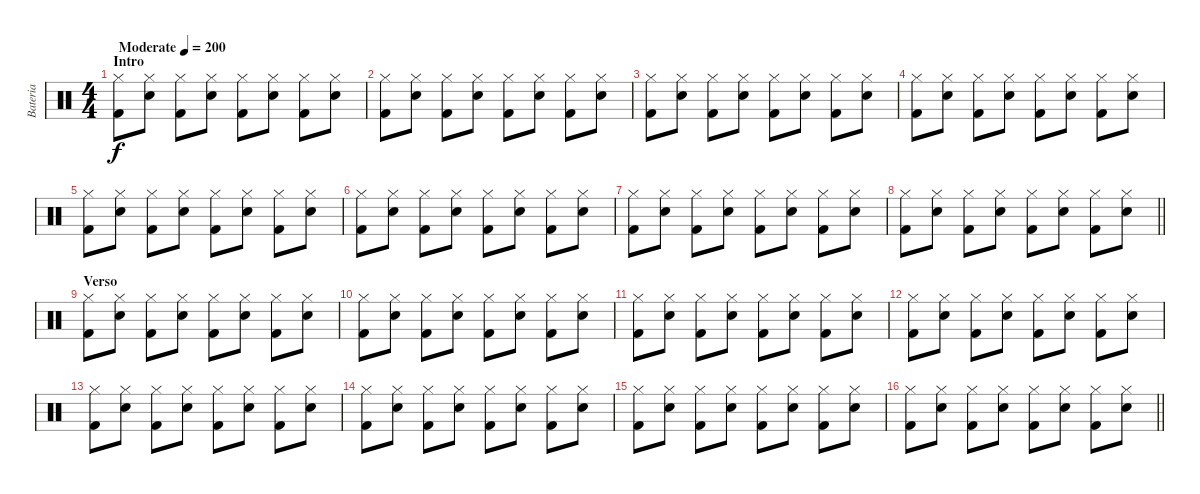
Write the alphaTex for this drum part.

\track ("Bateria" "Bateria") {instrument percussion}
\staff {score}
\articulation defaults
\ts (4 4)
\section ("" "Intro")
\tempo (200 "Moderate")
\clef neutral
\ks c
("Hi-Hat (closed)" "Kick (hit) 2").8{dy f} ("Hi-Hat (closed)" "Snare (hit) 2").8 ("Hi-Hat (closed)" "Kick (hit) 2").8 ("Hi-Hat (closed)" "Snare (hit) 2").8 ("Hi-Hat (closed)" "Kick (hit) 2").8 ("Hi-Hat (closed)" "Snare (hit) 2").8 ("Hi-Hat (closed)" "Kick (hit) 2").8 ("Hi-Hat (closed)" "Snare (hit) 2").8 |
("Hi-Hat (closed)" "Kick (hit) 2").8 ("Hi-Hat (closed)" "Snare (hit) 2").8 ("Hi-Hat (closed)" "Kick (hit) 2").8 ("Hi-Hat (closed)" "Snare (hit) 2").8 ("Hi-Hat (closed)" "Kick (hit) 2").8 ("Hi-Hat (closed)" "Snare (hit) 2").8 ("Hi-Hat (closed)" "Kick (hit) 2").8 ("Hi-Hat (closed)" "Snare (hit) 2").8 |
("Hi-Hat (closed)" "Kick (hit) 2").8 ("Hi-Hat (closed)" "Snare (hit) 2").8 ("Hi-Hat (closed)" "Kick (hit) 2").8 ("Hi-Hat (closed)" "Snare (hit) 2").8 ("Hi-Hat (closed)" "Kick (hit) 2").8 ("Hi-Hat (closed)" "Snare (hit) 2").8 ("Hi-Hat (closed)" "Kick (hit) 2").8 ("Hi-Hat (closed)" "Snare (hit) 2").8 |
("Hi-Hat (closed)" "Kick (hit) 2").8 ("Hi-Hat (closed)" "Snare (hit) 2").8 ("Hi-Hat (closed)" "Kick (hit) 2").8 ("Hi-Hat (closed)" "Snare (hit) 2").8 ("Hi-Hat (closed)" "Kick (hit) 2").8 ("Hi-Hat (closed)" "Snare (hit) 2").8 ("Hi-Hat (closed)" "Kick (hit) 2").8 ("Hi-Hat (closed)" "Snare (hit) 2").8 |
("Hi-Hat (closed)" "Kick (hit) 2").8 ("Hi-Hat (closed)" "Snare (hit) 2").8 ("Hi-Hat (closed)" "Kick (hit) 2").8 ("Hi-Hat (closed)" "Snare (hit) 2").8 ("Hi-Hat (closed)" "Kick (hit) 2").8 ("Hi-Hat (closed)" "Snare (hit) 2").8 ("Hi-Hat (closed)" "Kick (hit) 2").8 ("Hi-Hat (closed)" "Snare (hit) 2").8 |
("Hi-Hat (closed)" "Kick (hit) 2").8 ("Hi-Hat (closed)" "Snare (hit) 2").8 ("Hi-Hat (closed)" "Kick (hit) 2").8 ("Hi-Hat (closed)" "Snare (hit) 2").8 ("Hi-Hat (closed)" "Kick (hit) 2").8 ("Hi-Hat (closed)" "Snare (hit) 2").8 ("Hi-Hat (closed)" "Kick (hit) 2").8 ("Hi-Hat (closed)" "Snare (hit) 2").8 |
("Hi-Hat (closed)" "Kick (hit) 2").8 ("Hi-Hat (closed)" "Snare (hit) 2").8 ("Hi-Hat (closed)" "Kick (hit) 2").8 ("Hi-Hat (closed)" "Snare (hit) 2").8 ("Hi-Hat (closed)" "Kick (hit) 2").8 ("Hi-Hat (closed)" "Snare (hit) 2").8 ("Hi-Hat (closed)" "Kick (hit) 2").8 ("Hi-Hat (closed)" "Snare (hit) 2").8 |
\barLineRight lightlight
("Hi-Hat (closed)" "Kick (hit) 2").8 ("Hi-Hat (closed)" "Snare (hit) 2").8 ("Hi-Hat (closed)" "Kick (hit) 2").8 ("Hi-Hat (closed)" "Snare (hit) 2").8 ("Hi-Hat (closed)" "Kick (hit) 2").8 ("Hi-Hat (closed)" "Snare (hit) 2").8 ("Hi-Hat (closed)" "Kick (hit) 2").8 ("Hi-Hat (closed)" "Snare (hit) 2").8 |
\section ("" "Verso")
("Hi-Hat (closed)" "Kick (hit) 2").8 ("Hi-Hat (closed)" "Snare (hit) 2").8 ("Hi-Hat (closed)" "Kick (hit) 2").8 ("Hi-Hat (closed)" "Snare (hit) 2").8 ("Hi-Hat (closed)" "Kick (hit) 2").8 ("Hi-Hat (closed)" "Snare (hit) 2").8 ("Hi-Hat (closed)" "Kick (hit) 2").8 ("Hi-Hat (closed)" "Snare (hit) 2").8 |
("Hi-Hat (closed)" "Kick (hit) 2").8 ("Hi-Hat (closed)" "Snare (hit) 2").8 ("Hi-Hat (closed)" "Kick (hit) 2").8 ("Hi-Hat (closed)" "Snare (hit) 2").8 ("Hi-Hat (closed)" "Kick (hit) 2").8 ("Hi-Hat (closed)" "Snare (hit) 2").8 ("Hi-Hat (closed)" "Kick (hit) 2").8 ("Hi-Hat (closed)" "Snare (hit) 2").8 |
("Hi-Hat (closed)" "Kick (hit) 2").8 ("Hi-Hat (closed)" "Snare (hit) 2").8 ("Hi-Hat (closed)" "Kick (hit) 2").8 ("Hi-Hat (closed)" "Snare (hit) 2").8 ("Hi-Hat (closed)" "Kick (hit) 2").8 ("Hi-Hat (closed)" "Snare (hit) 2").8 ("Hi-Hat (closed)" "Kick (hit) 2").8 ("Hi-Hat (closed)" "Snare (hit) 2").8 |
("Hi-Hat (closed)" "Kick (hit) 2").8 ("Hi-Hat (closed)" "Snare (hit) 2").8 ("Hi-Hat (closed)" "Kick (hit) 2").8 ("Hi-Hat (closed)" "Snare (hit) 2").8 ("Hi-Hat (closed)" "Kick (hit) 2").8 ("Hi-Hat (closed)" "Snare (hit) 2").8 ("Hi-Hat (closed)" "Kick (hit) 2").8 ("Hi-Hat (closed)" "Snare (hit) 2").8 |
("Hi-Hat (closed)" "Kick (hit) 2").8 ("Hi-Hat (closed)" "Snare (hit) 2").8 ("Hi-Hat (closed)" "Kick (hit) 2").8 ("Hi-Hat (closed)" "Snare (hit) 2").8 ("Hi-Hat (closed)" "Kick (hit) 2").8 ("Hi-Hat (closed)" "Snare (hit) 2").8 ("Hi-Hat (closed)" "Kick (hit) 2").8 ("Hi-Hat (closed)" "Snare (hit) 2").8 |
("Hi-Hat (closed)" "Kick (hit) 2").8 ("Hi-Hat (closed)" "Snare (hit) 2").8 ("Hi-Hat (closed)" "Kick (hit) 2").8 ("Hi-Hat (closed)" "Snare (hit) 2").8 ("Hi-Hat (closed)" "Kick (hit) 2").8 ("Hi-Hat (closed)" "Snare (hit) 2").8 ("Hi-Hat (closed)" "Kick (hit) 2").8 ("Hi-Hat (closed)" "Snare (hit) 2").8 |
("Hi-Hat (closed)" "Kick (hit) 2").8 ("Hi-Hat (closed)" "Snare (hit) 2").8 ("Hi-Hat (closed)" "Kick (hit) 2").8 ("Hi-Hat (closed)" "Snare (hit) 2").8 ("Hi-Hat (closed)" "Kick (hit) 2").8 ("Hi-Hat (closed)" "Snare (hit) 2").8 ("Hi-Hat (closed)" "Kick (hit) 2").8 ("Hi-Hat (closed)" "Snare (hit) 2").8 |
\barLineRight lightlight
("Hi-Hat (closed)" "Kick (hit) 2").8 ("Hi-Hat (closed)" "Snare (hit) 2").8 ("Hi-Hat (closed)" "Kick (hit) 2").8 ("Hi-Hat (closed)" "Snare (hit) 2").8 ("Hi-Hat (closed)" "Kick (hit) 2").8 ("Hi-Hat (closed)" "Snare (hit) 2").8 ("Hi-Hat (closed)" "Kick (hit) 2").8 ("Hi-Hat (closed)" "Snare (hit) 2").8
